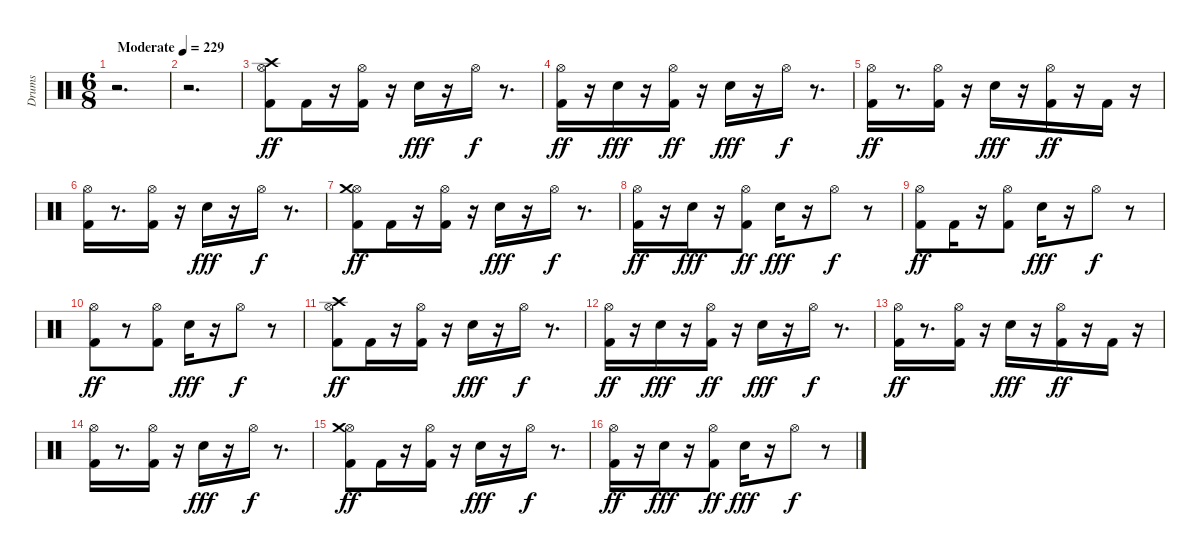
\track ("Drums" "Drums") {instrument percussion}
\staff {score}
\articulation defaults
\ts (6 8)
\tempo (229 "Moderate")
\clef neutral
\ks c
r.2{d dy ff} |
r.2{d} |
("Kick (hit) 2" "Hi-Hat (open)" "Crash high (hit)").8 "Kick (hit) 2".16 r.16 ("Kick (hit) 2" "Hi-Hat (open)").16 r.16 "Snare (hit) 2".16{dy fff} r.16 "Hi-Hat (open)".16{dy f} r.8{d} |
("Kick (hit) 2" "Hi-Hat (open)").16{dy ff} r.16 "Snare (hit) 2".16{dy fff} r.16 ("Kick (hit) 2" "Hi-Hat (open)").16{dy ff} r.16 "Snare (hit) 2".16{dy fff} r.16 "Hi-Hat (open)".16{dy f} r.8{d} |
("Kick (hit) 2" "Hi-Hat (open)").16{dy ff} r.8{d} ("Kick (hit) 2" "Hi-Hat (open)").16 r.16 "Snare (hit) 2".16{dy fff} r.16 ("Kick (hit) 2" "Hi-Hat (open)").16{dy ff} r.16 "Kick (hit) 2".16 r.16 |
("Kick (hit) 2" "Hi-Hat (open)").16 r.8{d} ("Kick (hit) 2" "Hi-Hat (open)").16 r.16 "Snare (hit) 2".16{dy fff} r.16 "Hi-Hat (open)".16{dy f} r.8{d} |
("Kick (hit) 2" "Hi-Hat (open)" "Crash medium (hit)").8{dy ff} "Kick (hit) 2".16 r.16 ("Kick (hit) 2" "Hi-Hat (open)").16 r.16 "Snare (hit) 2".16{dy fff} r.16 "Hi-Hat (open)".16{dy f} r.8{d} |
("Kick (hit) 2" "Hi-Hat (open)").16{dy ff} r.16 "Snare (hit) 2".16{dy fff} r.16 ("Kick (hit) 2" "Hi-Hat (open)").8{dy ff} "Snare (hit) 2".16{dy fff} r.16 "Hi-Hat (open)".8{dy f} r.8 |
("Kick (hit) 2" "Hi-Hat (open)").8{dy ff} "Kick (hit) 2".16 r.16 ("Kick (hit) 2" "Hi-Hat (open)").8 "Snare (hit) 2".16{dy fff} r.16 "Hi-Hat (open)".8{dy f} r.8 |
("Kick (hit) 2" "Hi-Hat (open)").8{dy ff} r.8 ("Kick (hit) 2" "Hi-Hat (open)").8 "Snare (hit) 2".16{dy fff} r.16 "Hi-Hat (open)".8{dy f} r.8 |
("Kick (hit) 2" "Hi-Hat (open)" "Crash high (hit)").8{dy ff} "Kick (hit) 2".16 r.16 ("Kick (hit) 2" "Hi-Hat (open)").16 r.16 "Snare (hit) 2".16{dy fff} r.16 "Hi-Hat (open)".16{dy f} r.8{d} |
("Kick (hit) 2" "Hi-Hat (open)").16{dy ff} r.16 "Snare (hit) 2".16{dy fff} r.16 ("Kick (hit) 2" "Hi-Hat (open)").16{dy ff} r.16 "Snare (hit) 2".16{dy fff} r.16 "Hi-Hat (open)".16{dy f} r.8{d} |
("Kick (hit) 2" "Hi-Hat (open)").16{dy ff} r.8{d} ("Kick (hit) 2" "Hi-Hat (open)").16 r.16 "Snare (hit) 2".16{dy fff} r.16 ("Kick (hit) 2" "Hi-Hat (open)").16{dy ff} r.16 "Kick (hit) 2".16 r.16 |
("Kick (hit) 2" "Hi-Hat (open)").16 r.8{d} ("Kick (hit) 2" "Hi-Hat (open)").16 r.16 "Snare (hit) 2".16{dy fff} r.16 "Hi-Hat (open)".16{dy f} r.8{d} |
("Kick (hit) 2" "Hi-Hat (open)" "Crash medium (hit)").8{dy ff} "Kick (hit) 2".16 r.16 ("Kick (hit) 2" "Hi-Hat (open)").16 r.16 "Snare (hit) 2".16{dy fff} r.16 "Hi-Hat (open)".16{dy f} r.8{d} |
("Kick (hit) 2" "Hi-Hat (open)").16{dy ff} r.16 "Snare (hit) 2".16{dy fff} r.16 ("Kick (hit) 2" "Hi-Hat (open)").8{dy ff} "Snare (hit) 2".16{dy fff} r.16 "Hi-Hat (open)".8{dy f} r.8
